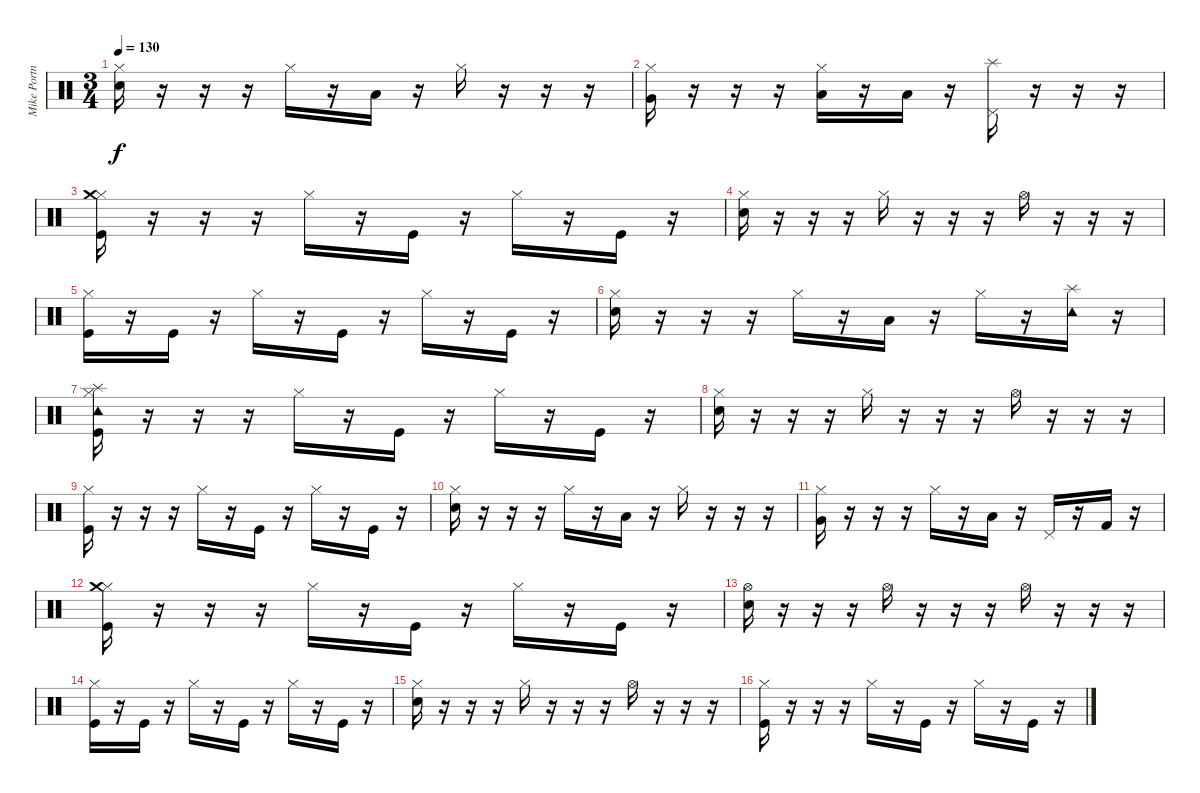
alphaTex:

\track ("Mike Portnoy" "Mike Portn") {instrument percussion}
\staff {score}
\articulation defaults
\ts (3 4)
\tempo 130
\clef neutral
\ks c
("Electric Snare (hit)" "Hi-Hat (closed)").16{dy f} r.16 r.16 r.16 "Hi-Hat (closed)".16 r.16 "Low Tom (hit)".16 r.16 "Hi-Hat (closed)".16 r.16 r.16 r.16 |
("Very Low Tom (hit)" "Hi-Hat (closed)").16 r.16 r.16 r.16 ("Low Floor Tom (hit)" "Hi-Hat (closed)").16 r.16 "Low Floor Tom (hit)".16 r.16 ("Splash (hit)" "Pedal Hi-Hat (hit)").16 r.16 r.16 r.16 |
("Kick (hit)" "Hi-Hat (closed)" "Crash medium (hit)").16 r.16 r.16 r.16 "Hi-Hat (closed)".16 r.16 "Kick (hit)".16 r.16 "Hi-Hat (closed)".16 r.16 "Kick (hit)".16 r.16 |
("Electric Snare (hit)" "Hi-Hat (closed)").16 r.16 r.16 r.16 "Hi-Hat (closed)".16 r.16 r.16 r.16 "Hi-Hat (open)".16 r.16 r.16 r.16 |
("Kick (hit)" "Hi-Hat (closed)").16 r.16 "Kick (hit)".16 r.16 "Hi-Hat (closed)".16 r.16 "Kick (hit)".16 r.16 "Hi-Hat (closed)".16 r.16 "Kick (hit)".16 r.16 |
("Electric Snare (hit)" "Hi-Hat (closed)").16 r.16 r.16 r.16 "Hi-Hat (closed)".16 r.16 "Low Tom (hit)".16 r.16 "Hi-Hat (closed)".16 r.16 ("Splash (hit)" "Tambourine (hit)").16 r.16 |
("Kick (hit)" "Tambourine (hit)" "Splash (hit)" "Hi-Hat (closed)").16 r.16 r.16 r.16 "Hi-Hat (closed)".16 r.16 "Kick (hit)".16 r.16 "Hi-Hat (closed)".16 r.16 "Kick (hit)".16 r.16 |
("Electric Snare (hit)" "Hi-Hat (closed)").16 r.16 r.16 r.16 "Hi-Hat (closed)".16 r.16 r.16 r.16 "Hi-Hat (open)".16 r.16 r.16 r.16 |
("Kick (hit)" "Hi-Hat (closed)").16 r.16 r.16 r.16 "Hi-Hat (closed)".16 r.16 "Kick (hit)".16 r.16 "Hi-Hat (closed)".16 r.16 "Kick (hit)".16 r.16 |
("Electric Snare (hit)" "Hi-Hat (closed)").16 r.16 r.16 r.16 "Hi-Hat (closed)".16 r.16 "Low Tom (hit)".16 r.16 "Hi-Hat (closed)".16 r.16 r.16 r.16 |
("Very Low Tom (hit)" "Hi-Hat (closed)").16 r.16 r.16 r.16 "Hi-Hat (closed)".16 r.16 "Low Floor Tom (hit)".16 r.16 "Pedal Hi-Hat (hit)".16 r.16 "Kick (hit) 2".16 r.16 |
("Kick (hit)" "Hi-Hat (closed)" "Crash medium (hit)").16 r.16 r.16 r.16 "Hi-Hat (closed)".16 r.16 "Kick (hit)".16 r.16 "Hi-Hat (closed)".16 r.16 "Kick (hit)".16 r.16 |
("Electric Snare (hit)" "Hi-Hat (open)").16 r.16 r.16 r.16 "Hi-Hat (open)".16 r.16 r.16 r.16 "Hi-Hat (open)".16 r.16 r.16 r.16 |
("Kick (hit)" "Hi-Hat (closed)").16 r.16 "Kick (hit)".16 r.16 "Hi-Hat (closed)".16 r.16 "Kick (hit)".16 r.16 "Hi-Hat (closed)".16 r.16 "Kick (hit)".16 r.16 |
("Electric Snare (hit)" "Hi-Hat (closed)").16 r.16 r.16 r.16 "Hi-Hat (closed)".16 r.16 r.16 r.16 "Hi-Hat (open)".16 r.16 r.16 r.16 |
("Kick (hit)" "Hi-Hat (closed)").16 r.16 r.16 r.16 "Hi-Hat (closed)".16 r.16 "Kick (hit)".16 r.16 "Hi-Hat (closed)".16 r.16 "Kick (hit)".16 r.16
